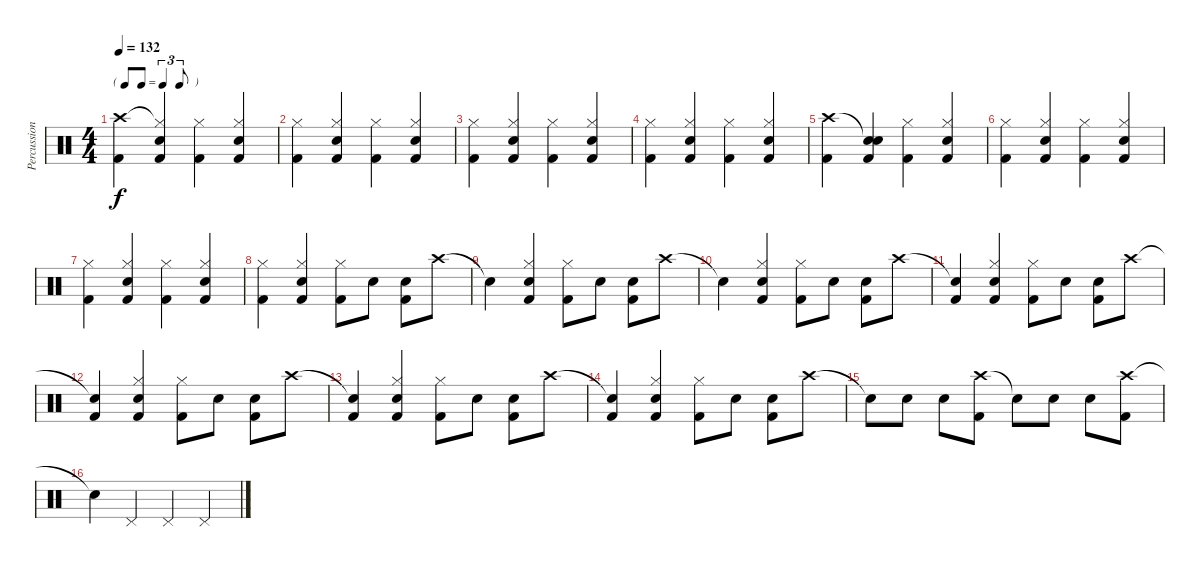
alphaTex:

\track ("Percussion" "Percussion") {instrument percussion}
\staff {score}
\articulation defaults
\ts (4 4)
\tf triplet8th
\tempo 132
\clef neutral
\ks c
("Crash high (hit)" "Kick (hit) 2").4{dy f} ("Hi-Hat (closed)"{t} "Snare (hit) 2" "Kick (hit) 2").4 ("Hi-Hat (closed)" "Kick (hit) 2").4 ("Hi-Hat (closed)" "Snare (hit) 2" "Kick (hit) 2").4 |
("Hi-Hat (closed)" "Kick (hit) 2").4 ("Hi-Hat (closed)" "Snare (hit) 2" "Kick (hit) 2").4 ("Hi-Hat (closed)" "Kick (hit) 2").4 ("Hi-Hat (closed)" "Snare (hit) 2" "Kick (hit) 2").4 |
("Hi-Hat (closed)" "Kick (hit) 2").4 ("Hi-Hat (closed)" "Snare (hit) 2" "Kick (hit) 2").4 ("Hi-Hat (closed)" "Kick (hit) 2").4 ("Hi-Hat (closed)" "Snare (hit) 2" "Kick (hit) 2").4 |
("Hi-Hat (closed)" "Kick (hit) 2").4 ("Hi-Hat (closed)" "Snare (hit) 2" "Kick (hit) 2").4 ("Hi-Hat (closed)" "Kick (hit) 2").4 ("Hi-Hat (closed)" "Snare (hit) 2" "Kick (hit) 2").4 |
("Crash high (hit)" "Kick (hit) 2").4 ("Snare (hit)"{t} "Snare (hit) 2" "Kick (hit) 2").4 ("Hi-Hat (closed)" "Kick (hit) 2").4 ("Hi-Hat (closed)" "Snare (hit) 2" "Kick (hit) 2").4 |
("Hi-Hat (closed)" "Kick (hit) 2").4 ("Hi-Hat (closed)" "Snare (hit) 2" "Kick (hit) 2").4 ("Hi-Hat (closed)" "Kick (hit) 2").4 ("Hi-Hat (closed)" "Snare (hit) 2" "Kick (hit) 2").4 |
("Hi-Hat (closed)" "Kick (hit) 2").4 ("Hi-Hat (closed)" "Snare (hit) 2" "Kick (hit) 2").4 ("Hi-Hat (closed)" "Kick (hit) 2").4 ("Hi-Hat (closed)" "Snare (hit) 2" "Kick (hit) 2").4 |
("Hi-Hat (closed)" "Kick (hit) 2").4 ("Hi-Hat (closed)" "Snare (hit) 2" "Kick (hit) 2").4 ("Hi-Hat (closed)" "Kick (hit) 2").8 "Snare (hit) 2".8 ("Snare (hit) 2" "Kick (hit) 2").8 "Crash high (hit)".8 |
"Snare (hit)"{t}.4 ("Hi-Hat (closed)" "Snare (hit) 2" "Kick (hit) 2").4 ("Hi-Hat (closed)" "Kick (hit) 2").8 "Snare (hit) 2".8 ("Snare (hit) 2" "Kick (hit) 2").8 "Crash high (hit)".8 |
"Snare (hit)"{t}.4 ("Hi-Hat (closed)" "Snare (hit) 2" "Kick (hit) 2").4 ("Hi-Hat (closed)" "Kick (hit) 2").8 "Snare (hit) 2".8 ("Snare (hit) 2" "Kick (hit) 2").8 "Crash high (hit)".8 |
("Snare (hit)"{t} "Kick (hit) 2").4 ("Hi-Hat (closed)" "Snare (hit) 2" "Kick (hit) 2").4 ("Hi-Hat (closed)" "Kick (hit) 2").8 "Snare (hit) 2".8 ("Snare (hit) 2" "Kick (hit) 2").8 "Crash high (hit)".8 |
("Snare (hit)"{t} "Kick (hit) 2").4 ("Hi-Hat (closed)" "Snare (hit) 2" "Kick (hit) 2").4 ("Hi-Hat (closed)" "Kick (hit) 2").8 "Snare (hit) 2".8 ("Snare (hit) 2" "Kick (hit) 2").8 "Crash high (hit)".8 |
("Snare (hit)"{t} "Kick (hit) 2").4 ("Hi-Hat (closed)" "Snare (hit) 2" "Kick (hit) 2").4 ("Hi-Hat (closed)" "Kick (hit) 2").8 "Snare (hit) 2".8 ("Snare (hit) 2" "Kick (hit) 2").8 "Crash high (hit)".8 |
("Snare (hit)"{t} "Kick (hit) 2").4 ("Hi-Hat (closed)" "Snare (hit) 2" "Kick (hit) 2").4 ("Hi-Hat (closed)" "Kick (hit) 2").8 "Snare (hit) 2".8 ("Snare (hit) 2" "Kick (hit) 2").8 "Crash high (hit)".8 |
"Snare (hit)"{t}.8 "Snare (hit) 2".8 "Snare (hit) 2".8 ("Crash high (hit)" "Kick (hit) 2").8 "Snare (hit)"{t}.8 "Snare (hit) 2".8 "Snare (hit) 2".8 ("Crash high (hit)" "Kick (hit) 2").8 |
"Snare (hit)"{t}.4 "Pedal Hi-Hat (hit)".4 "Pedal Hi-Hat (hit)".4 "Pedal Hi-Hat (hit)".4
